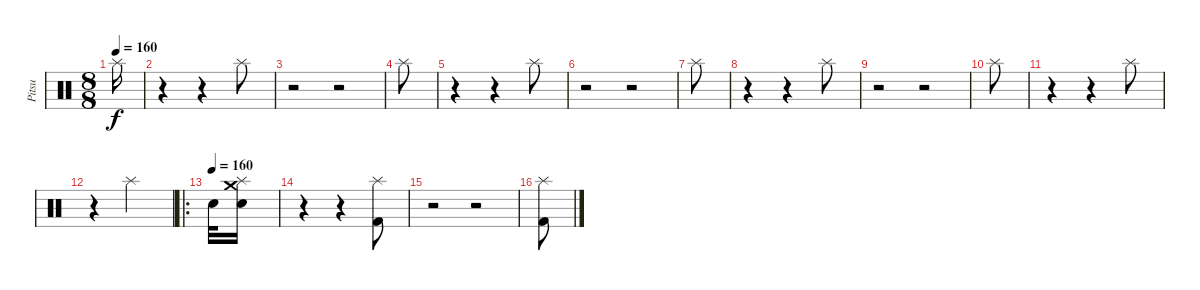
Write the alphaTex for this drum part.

\track ("Pitsu" "Pitsu") {instrument percussion}
\staff {score}
\articulation defaults
\ts (8 8)
\tempo 160
\clef neutral
\ks c "Splash (hit)".16{dy f}
|
r.4 r.4 "Splash (hit)".8 |
r.2 r.2 |
"Splash (hit)".8 |
r.4 r.4 "Splash (hit)".8 |
r.2 r.2 |
"Splash (hit)".8 |
r.4 r.4 "Splash (hit)".8 |
r.2 r.2 |
"Splash (hit)".8 |
r.4 r.4 "Splash (hit)".8 |
r.4 "Splash (hit)".2 |
\ro
\tempo (160)
"Snare (hit) 2".32 ("Crash medium (hit)" "Splash (hit)" "Snare (hit) 2").16 |
r.4 r.4 ("Splash (hit)" "Kick (hit) 2").8 |
r.2 r.2 |
("Splash (hit)" "Kick (hit) 2").8
